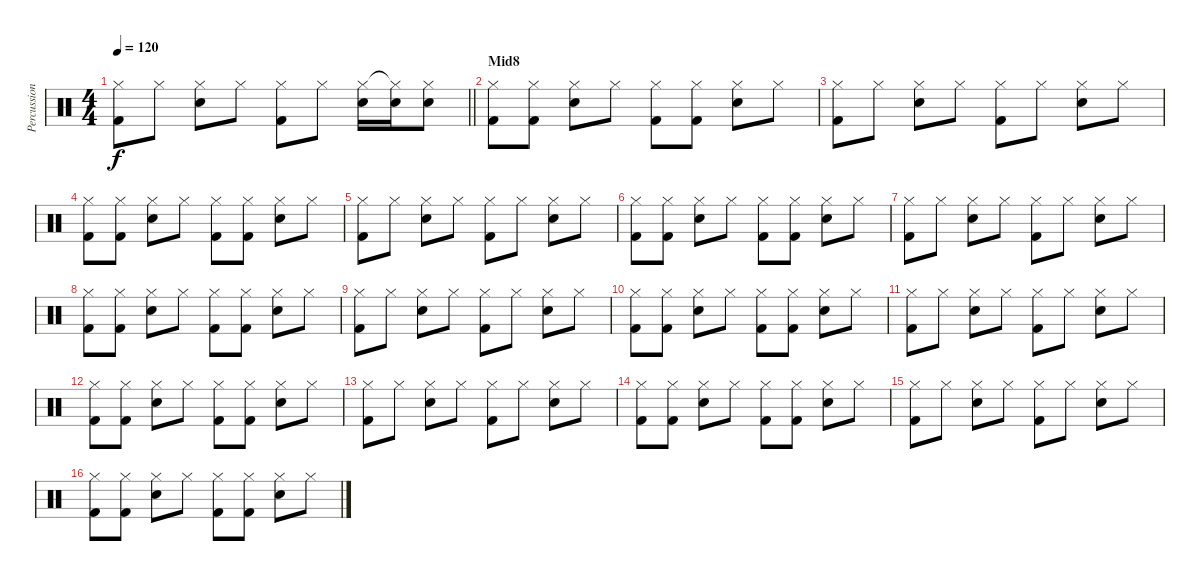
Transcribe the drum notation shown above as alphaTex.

\track ("Percussion" "Percussion") {instrument percussion}
\staff {score}
\articulation defaults
\ts (4 4)
\tempo 120
\clef neutral
\barLineRight lightlight
\ks c
("Hi-Hat (closed)" "Kick (hit) 2").8{dy f} "Hi-Hat (closed)".8 ("Hi-Hat (closed)" "Electric Snare (hit)").8 "Hi-Hat (closed)".8 ("Hi-Hat (closed)" "Kick (hit) 2").8 "Hi-Hat (closed)".8 ("Hi-Hat (closed)" "Electric Snare (hit)").16 ("Hi-Hat (closed)"{t} "Electric Snare (hit)").16 ("Hi-Hat (closed)" "Electric Snare (hit)").8 |
\section ("" "Mid8")
("Hi-Hat (closed)" "Kick (hit) 2").8 ("Hi-Hat (closed)" "Kick (hit) 2").8 ("Hi-Hat (closed)" "Electric Snare (hit)").8 "Hi-Hat (closed)".8 ("Hi-Hat (closed)" "Kick (hit) 2").8 ("Hi-Hat (closed)" "Kick (hit) 2").8 ("Hi-Hat (closed)" "Electric Snare (hit)").8 "Hi-Hat (closed)".8 |
("Hi-Hat (closed)" "Kick (hit) 2").8 "Hi-Hat (closed)".8 ("Hi-Hat (closed)" "Electric Snare (hit)").8 "Hi-Hat (closed)".8 ("Hi-Hat (closed)" "Kick (hit) 2").8 "Hi-Hat (closed)".8 ("Hi-Hat (closed)" "Electric Snare (hit)").8 "Hi-Hat (closed)".8 |
("Hi-Hat (closed)" "Kick (hit) 2").8 ("Hi-Hat (closed)" "Kick (hit) 2").8 ("Hi-Hat (closed)" "Electric Snare (hit)").8 "Hi-Hat (closed)".8 ("Hi-Hat (closed)" "Kick (hit) 2").8 ("Hi-Hat (closed)" "Kick (hit) 2").8 ("Hi-Hat (closed)" "Electric Snare (hit)").8 "Hi-Hat (closed)".8 |
("Hi-Hat (closed)" "Kick (hit) 2").8 "Hi-Hat (closed)".8 ("Hi-Hat (closed)" "Electric Snare (hit)").8 "Hi-Hat (closed)".8 ("Hi-Hat (closed)" "Kick (hit) 2").8 "Hi-Hat (closed)".8 ("Hi-Hat (closed)" "Electric Snare (hit)").8 "Hi-Hat (closed)".8 |
("Hi-Hat (closed)" "Kick (hit) 2").8 ("Hi-Hat (closed)" "Kick (hit) 2").8 ("Hi-Hat (closed)" "Electric Snare (hit)").8 "Hi-Hat (closed)".8 ("Hi-Hat (closed)" "Kick (hit) 2").8 ("Hi-Hat (closed)" "Kick (hit) 2").8 ("Hi-Hat (closed)" "Electric Snare (hit)").8 "Hi-Hat (closed)".8 |
("Hi-Hat (closed)" "Kick (hit) 2").8 "Hi-Hat (closed)".8 ("Hi-Hat (closed)" "Electric Snare (hit)").8 "Hi-Hat (closed)".8 ("Hi-Hat (closed)" "Kick (hit) 2").8 "Hi-Hat (closed)".8 ("Hi-Hat (closed)" "Electric Snare (hit)").8 "Hi-Hat (closed)".8 |
("Hi-Hat (closed)" "Kick (hit) 2").8 ("Hi-Hat (closed)" "Kick (hit) 2").8 ("Hi-Hat (closed)" "Electric Snare (hit)").8 "Hi-Hat (closed)".8 ("Hi-Hat (closed)" "Kick (hit) 2").8 ("Hi-Hat (closed)" "Kick (hit) 2").8 ("Hi-Hat (closed)" "Electric Snare (hit)").8 "Hi-Hat (closed)".8 |
("Hi-Hat (closed)" "Kick (hit) 2").8 "Hi-Hat (closed)".8 ("Hi-Hat (closed)" "Electric Snare (hit)").8 "Hi-Hat (closed)".8 ("Hi-Hat (closed)" "Kick (hit) 2").8 "Hi-Hat (closed)".8 ("Hi-Hat (closed)" "Electric Snare (hit)").8 "Hi-Hat (closed)".8 |
("Hi-Hat (closed)" "Kick (hit) 2").8 ("Hi-Hat (closed)" "Kick (hit) 2").8 ("Hi-Hat (closed)" "Electric Snare (hit)").8 "Hi-Hat (closed)".8 ("Hi-Hat (closed)" "Kick (hit) 2").8 ("Hi-Hat (closed)" "Kick (hit) 2").8 ("Hi-Hat (closed)" "Electric Snare (hit)").8 "Hi-Hat (closed)".8 |
("Hi-Hat (closed)" "Kick (hit) 2").8 "Hi-Hat (closed)".8 ("Hi-Hat (closed)" "Electric Snare (hit)").8 "Hi-Hat (closed)".8 ("Hi-Hat (closed)" "Kick (hit) 2").8 "Hi-Hat (closed)".8 ("Hi-Hat (closed)" "Electric Snare (hit)").8 "Hi-Hat (closed)".8 |
("Hi-Hat (closed)" "Kick (hit) 2").8 ("Hi-Hat (closed)" "Kick (hit) 2").8 ("Hi-Hat (closed)" "Electric Snare (hit)").8 "Hi-Hat (closed)".8 ("Hi-Hat (closed)" "Kick (hit) 2").8 ("Hi-Hat (closed)" "Kick (hit) 2").8 ("Hi-Hat (closed)" "Electric Snare (hit)").8 "Hi-Hat (closed)".8 |
("Hi-Hat (closed)" "Kick (hit) 2").8 "Hi-Hat (closed)".8 ("Hi-Hat (closed)" "Electric Snare (hit)").8 "Hi-Hat (closed)".8 ("Hi-Hat (closed)" "Kick (hit) 2").8 "Hi-Hat (closed)".8 ("Hi-Hat (closed)" "Electric Snare (hit)").8 "Hi-Hat (closed)".8 |
("Hi-Hat (closed)" "Kick (hit) 2").8 ("Hi-Hat (closed)" "Kick (hit) 2").8 ("Hi-Hat (closed)" "Electric Snare (hit)").8 "Hi-Hat (closed)".8 ("Hi-Hat (closed)" "Kick (hit) 2").8 ("Hi-Hat (closed)" "Kick (hit) 2").8 ("Hi-Hat (closed)" "Electric Snare (hit)").8 "Hi-Hat (closed)".8 |
("Hi-Hat (closed)" "Kick (hit) 2").8 "Hi-Hat (closed)".8 ("Hi-Hat (closed)" "Electric Snare (hit)").8 "Hi-Hat (closed)".8 ("Hi-Hat (closed)" "Kick (hit) 2").8 "Hi-Hat (closed)".8 ("Hi-Hat (closed)" "Electric Snare (hit)").8 "Hi-Hat (closed)".8 |
("Hi-Hat (closed)" "Kick (hit) 2").8 ("Hi-Hat (closed)" "Kick (hit) 2").8 ("Hi-Hat (closed)" "Electric Snare (hit)").8 "Hi-Hat (closed)".8 ("Hi-Hat (closed)" "Kick (hit) 2").8 ("Hi-Hat (closed)" "Kick (hit) 2").8 ("Hi-Hat (closed)" "Electric Snare (hit)").8 "Hi-Hat (closed)".8
